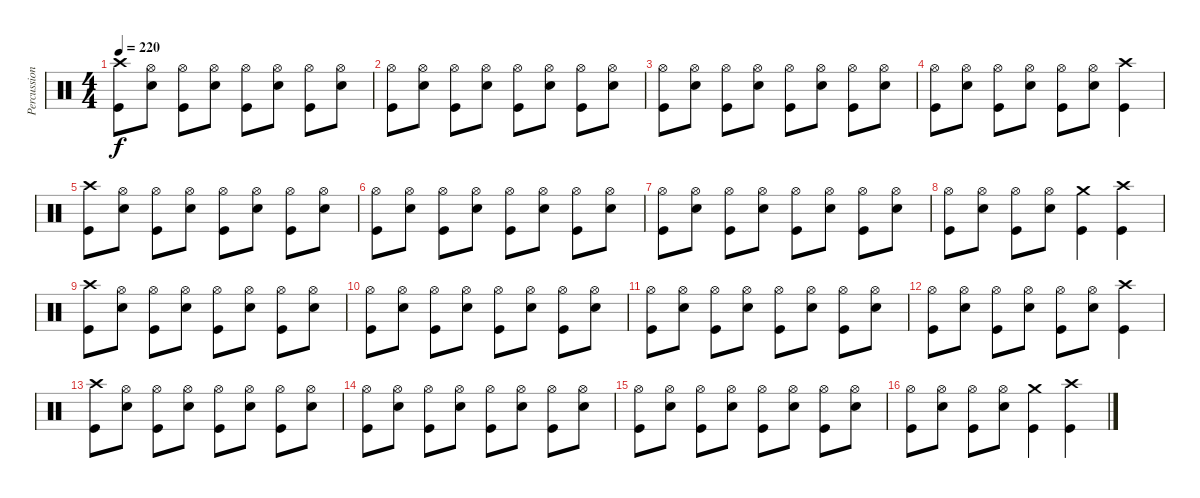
\track ("Percussion" "Percussion") {instrument percussion}
\staff {score}
\articulation defaults
\ts (4 4)
\tempo 220
\clef neutral
\ks c
("Crash high (hit)" "Kick (hit)").8{dy f} ("Hi-Hat (open)" "Snare (hit) 2").8 ("Hi-Hat (open)" "Kick (hit)").8 ("Hi-Hat (open)" "Snare (hit) 2").8 ("Hi-Hat (open)" "Kick (hit)").8 ("Hi-Hat (open)" "Snare (hit) 2").8 ("Hi-Hat (open)" "Kick (hit)").8 ("Hi-Hat (open)" "Snare (hit) 2").8 |
("Hi-Hat (open)" "Kick (hit)").8 ("Hi-Hat (open)" "Snare (hit) 2").8 ("Hi-Hat (open)" "Kick (hit)").8 ("Hi-Hat (open)" "Snare (hit) 2").8 ("Hi-Hat (open)" "Kick (hit)").8 ("Hi-Hat (open)" "Snare (hit) 2").8 ("Hi-Hat (open)" "Kick (hit)").8 ("Hi-Hat (open)" "Snare (hit) 2").8 |
("Hi-Hat (open)" "Kick (hit)").8 ("Hi-Hat (open)" "Snare (hit) 2").8 ("Hi-Hat (open)" "Kick (hit)").8 ("Hi-Hat (open)" "Snare (hit) 2").8 ("Hi-Hat (open)" "Kick (hit)").8 ("Hi-Hat (open)" "Snare (hit) 2").8 ("Hi-Hat (open)" "Kick (hit)").8 ("Hi-Hat (open)" "Snare (hit) 2").8 |
("Hi-Hat (open)" "Kick (hit)").8 ("Hi-Hat (open)" "Snare (hit) 2").8 ("Hi-Hat (open)" "Kick (hit)").8 ("Hi-Hat (open)" "Snare (hit) 2").8 ("Hi-Hat (open)" "Kick (hit)").8 ("Hi-Hat (open)" "Snare (hit) 2").8 ("Crash high (hit)" "Kick (hit)").4 |
("Crash high (hit)" "Kick (hit)").8 ("Hi-Hat (open)" "Snare (hit) 2").8 ("Hi-Hat (open)" "Kick (hit)").8 ("Hi-Hat (open)" "Snare (hit) 2").8 ("Hi-Hat (open)" "Kick (hit)").8 ("Hi-Hat (open)" "Snare (hit) 2").8 ("Hi-Hat (open)" "Kick (hit)").8 ("Hi-Hat (open)" "Snare (hit) 2").8 |
("Hi-Hat (open)" "Kick (hit)").8 ("Hi-Hat (open)" "Snare (hit) 2").8 ("Hi-Hat (open)" "Kick (hit)").8 ("Hi-Hat (open)" "Snare (hit) 2").8 ("Hi-Hat (open)" "Kick (hit)").8 ("Hi-Hat (open)" "Snare (hit) 2").8 ("Hi-Hat (open)" "Kick (hit)").8 ("Hi-Hat (open)" "Snare (hit) 2").8 |
("Hi-Hat (open)" "Kick (hit)").8 ("Hi-Hat (open)" "Snare (hit) 2").8 ("Hi-Hat (open)" "Kick (hit)").8 ("Hi-Hat (open)" "Snare (hit) 2").8 ("Hi-Hat (open)" "Kick (hit)").8 ("Hi-Hat (open)" "Snare (hit) 2").8 ("Hi-Hat (open)" "Kick (hit)").8 ("Hi-Hat (open)" "Snare (hit) 2").8 |
("Hi-Hat (open)" "Kick (hit)").8 ("Hi-Hat (open)" "Snare (hit) 2").8 ("Hi-Hat (open)" "Kick (hit)").8 ("Hi-Hat (open)" "Snare (hit) 2").8 ("Crash medium (hit)" "Kick (hit)").4 ("Crash high (hit)" "Kick (hit)").4 |
("Crash high (hit)" "Kick (hit)").8 ("Hi-Hat (open)" "Snare (hit) 2").8 ("Hi-Hat (open)" "Kick (hit)").8 ("Hi-Hat (open)" "Snare (hit) 2").8 ("Hi-Hat (open)" "Kick (hit)").8 ("Hi-Hat (open)" "Snare (hit) 2").8 ("Hi-Hat (open)" "Kick (hit)").8 ("Hi-Hat (open)" "Snare (hit) 2").8 |
("Hi-Hat (open)" "Kick (hit)").8 ("Hi-Hat (open)" "Snare (hit) 2").8 ("Hi-Hat (open)" "Kick (hit)").8 ("Hi-Hat (open)" "Snare (hit) 2").8 ("Hi-Hat (open)" "Kick (hit)").8 ("Hi-Hat (open)" "Snare (hit) 2").8 ("Hi-Hat (open)" "Kick (hit)").8 ("Hi-Hat (open)" "Snare (hit) 2").8 |
("Hi-Hat (open)" "Kick (hit)").8 ("Hi-Hat (open)" "Snare (hit) 2").8 ("Hi-Hat (open)" "Kick (hit)").8 ("Hi-Hat (open)" "Snare (hit) 2").8 ("Hi-Hat (open)" "Kick (hit)").8 ("Hi-Hat (open)" "Snare (hit) 2").8 ("Hi-Hat (open)" "Kick (hit)").8 ("Hi-Hat (open)" "Snare (hit) 2").8 |
("Hi-Hat (open)" "Kick (hit)").8 ("Hi-Hat (open)" "Snare (hit) 2").8 ("Hi-Hat (open)" "Kick (hit)").8 ("Hi-Hat (open)" "Snare (hit) 2").8 ("Hi-Hat (open)" "Kick (hit)").8 ("Hi-Hat (open)" "Snare (hit) 2").8 ("Crash high (hit)" "Kick (hit)").4 |
("Crash high (hit)" "Kick (hit)").8 ("Hi-Hat (open)" "Snare (hit) 2").8 ("Hi-Hat (open)" "Kick (hit)").8 ("Hi-Hat (open)" "Snare (hit) 2").8 ("Hi-Hat (open)" "Kick (hit)").8 ("Hi-Hat (open)" "Snare (hit) 2").8 ("Hi-Hat (open)" "Kick (hit)").8 ("Hi-Hat (open)" "Snare (hit) 2").8 |
("Hi-Hat (open)" "Kick (hit)").8 ("Hi-Hat (open)" "Snare (hit) 2").8 ("Hi-Hat (open)" "Kick (hit)").8 ("Hi-Hat (open)" "Snare (hit) 2").8 ("Hi-Hat (open)" "Kick (hit)").8 ("Hi-Hat (open)" "Snare (hit) 2").8 ("Hi-Hat (open)" "Kick (hit)").8 ("Hi-Hat (open)" "Snare (hit) 2").8 |
("Hi-Hat (open)" "Kick (hit)").8 ("Hi-Hat (open)" "Snare (hit) 2").8 ("Hi-Hat (open)" "Kick (hit)").8 ("Hi-Hat (open)" "Snare (hit) 2").8 ("Hi-Hat (open)" "Kick (hit)").8 ("Hi-Hat (open)" "Snare (hit) 2").8 ("Hi-Hat (open)" "Kick (hit)").8 ("Hi-Hat (open)" "Snare (hit) 2").8 |
("Hi-Hat (open)" "Kick (hit)").8 ("Hi-Hat (open)" "Snare (hit) 2").8 ("Hi-Hat (open)" "Kick (hit)").8 ("Hi-Hat (open)" "Snare (hit) 2").8 ("Crash medium (hit)" "Kick (hit)").4 ("Crash high (hit)" "Kick (hit)").4
